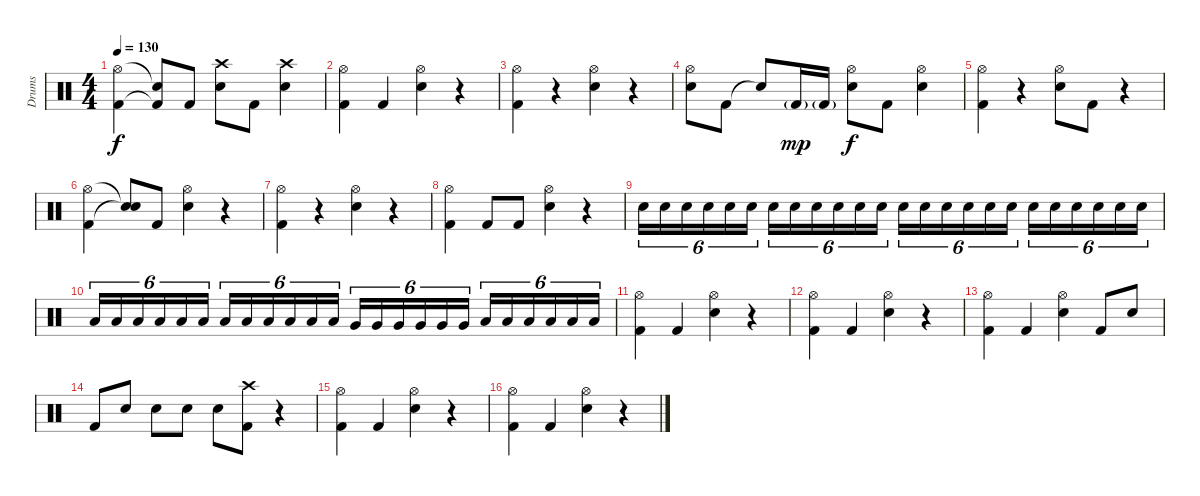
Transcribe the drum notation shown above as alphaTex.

\track ("Drums" "Drums") {instrument percussion}
\staff {score}
\articulation defaults
\ts (4 4)
\tempo 130
\clef neutral
\ks c
("Hi-Hat (open)" "Kick (hit) 2").4{dy f} ("Snare (hit)"{t} "Kick (hit) 2"{t}).8 "Kick (hit) 2".8 ("Crash high (hit)" "Electric Snare (hit)").8 "Kick (hit) 2".8 ("Crash high (hit)" "Electric Snare (hit)").4 |
("Hi-Hat (open)" "Kick (hit) 2").4 "Kick (hit) 2".4 ("Hi-Hat (open)" "Electric Snare (hit)").4 r.4 |
("Hi-Hat (open)" "Kick (hit) 2").4 r.4 ("Hi-Hat (open)" "Electric Snare (hit)").4 r.4 |
("Hi-Hat (open)" "Electric Snare (hit)").8 "Kick (hit) 2".8 "Snare (hit)"{t}.8 "Kick (hit) 2"{g}.16{dy mp} "Kick (hit) 2"{g}.16 ("Hi-Hat (open)" "Electric Snare (hit)").8{dy f} "Kick (hit) 2".8 ("Hi-Hat (open)" "Electric Snare (hit)").4 |
("Hi-Hat (open)" "Kick (hit) 2").4 r.4 ("Hi-Hat (open)" "Electric Snare (hit)").8 "Kick (hit) 2".8 r.4 |
("Hi-Hat (open)" "Kick (hit) 2").4 ("Snare (hit)"{t} "Snare (hit)"{t}).8 "Kick (hit) 2".8 ("Hi-Hat (open)" "Electric Snare (hit)").4 r.4 |
("Hi-Hat (open)" "Kick (hit) 2").4 r.4 ("Hi-Hat (open)" "Electric Snare (hit)").4 r.4 |
("Hi-Hat (open)" "Kick (hit) 2").4 "Kick (hit) 2".8 "Kick (hit) 2".8 ("Hi-Hat (open)" "Electric Snare (hit)").4 r.4 |
"Electric Snare (hit)".16{tu (6 4)} "Electric Snare (hit)".16{tu (6 4)} "Electric Snare (hit)".16{tu (6 4)} "Electric Snare (hit)".16{tu (6 4)} "Electric Snare (hit)".16{tu (6 4)} "Electric Snare (hit)".16{tu (6 4)} "Electric Snare (hit)".16{tu (6 4)} "Electric Snare (hit)".16{tu (6 4)} "Electric Snare (hit)".16{tu (6 4)} "Electric Snare (hit)".16{tu (6 4)} "Electric Snare (hit)".16{tu (6 4)} "Electric Snare (hit)".16{tu (6 4)} "Electric Snare (hit)".16{tu (6 4)} "Electric Snare (hit)".16{tu (6 4)} "Electric Snare (hit)".16{tu (6 4)} "Electric Snare (hit)".16{tu (6 4)} "Electric Snare (hit)".16{tu (6 4)} "Electric Snare (hit)".16{tu (6 4)} "Electric Snare (hit)".16{tu (6 4)} "Electric Snare (hit)".16{tu (6 4)} "Electric Snare (hit)".16{tu (6 4)} "Electric Snare (hit)".16{tu (6 4)} "Electric Snare (hit)".16{tu (6 4)} "Electric Snare (hit)".16{tu (6 4)} |
"Low Tom (hit)".16{tu (6 4)} "Low Tom (hit)".16{tu (6 4)} "Low Tom (hit)".16{tu (6 4)} "Low Tom (hit)".16{tu (6 4)} "Low Tom (hit)".16{tu (6 4)} "Low Tom (hit)".16{tu (6 4)} "Low Tom (hit)".16{tu (6 4)} "Low Tom (hit)".16{tu (6 4)} "Low Tom (hit)".16{tu (6 4)} "Low Tom (hit)".16{tu (6 4)} "Low Tom (hit)".16{tu (6 4)} "Low Tom (hit)".16{tu (6 4)} "Very Low Tom (hit)".16{tu (6 4)} "Very Low Tom (hit)".16{tu (6 4)} "Very Low Tom (hit)".16{tu (6 4)} "Very Low Tom (hit)".16{tu (6 4)} "Very Low Tom (hit)".16{tu (6 4)} "Very Low Tom (hit)".16{tu (6 4)} "Low Floor Tom (hit)".16{tu (6 4)} "Low Floor Tom (hit)".16{tu (6 4)} "Low Floor Tom (hit)".16{tu (6 4)} "Low Floor Tom (hit)".16{tu (6 4)} "Low Floor Tom (hit)".16{tu (6 4)} "Low Floor Tom (hit)".16{tu (6 4)} |
("Hi-Hat (open)" "Kick (hit) 2").4 "Kick (hit) 2".4 ("Hi-Hat (open)" "Electric Snare (hit)").4 r.4 |
("Hi-Hat (open)" "Kick (hit) 2").4 "Kick (hit) 2".4 ("Hi-Hat (open)" "Electric Snare (hit)").4 r.4 |
("Hi-Hat (open)" "Kick (hit) 2").4 "Kick (hit) 2".4 ("Hi-Hat (open)" "Electric Snare (hit)").4 "Kick (hit) 2".8 "Electric Snare (hit)".8 |
"Kick (hit) 2".8 "Electric Snare (hit)".8 "Electric Snare (hit)".8 "Electric Snare (hit)".8 "Electric Snare (hit)".8 ("Crash high (hit)" "Kick (hit) 2").8 r.4 |
("Hi-Hat (open)" "Kick (hit) 2").4 "Kick (hit) 2".4 ("Hi-Hat (open)" "Electric Snare (hit)").4 r.4 |
("Hi-Hat (open)" "Kick (hit) 2").4 "Kick (hit) 2".4 ("Hi-Hat (open)" "Electric Snare (hit)").4 r.4
